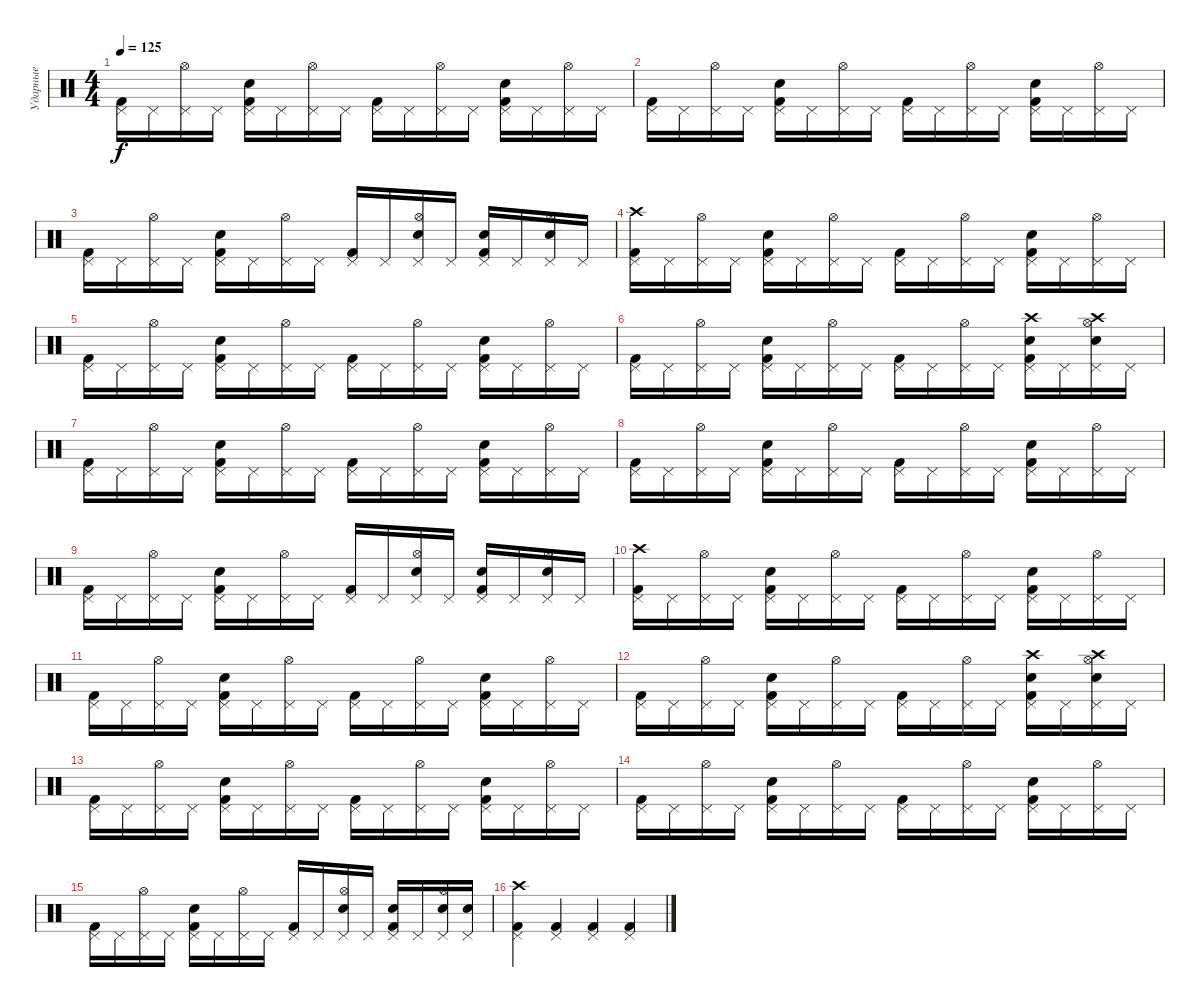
\track ("Ударные" "Ударные") {instrument percussion}
\staff {score}
\articulation defaults
\ts (4 4)
\tempo 125
\clef neutral
\ks c
("Kick (hit) 2" "Pedal Hi-Hat (hit)").16{dy f} "Pedal Hi-Hat (hit)".16 ("Pedal Hi-Hat (hit)" "Hi-Hat (open)").16 "Pedal Hi-Hat (hit)".16 ("Kick (hit) 2" "Pedal Hi-Hat (hit)" "Snare (hit) 2").16 "Pedal Hi-Hat (hit)".16 ("Pedal Hi-Hat (hit)" "Hi-Hat (open)").16 "Pedal Hi-Hat (hit)".16 ("Kick (hit) 2" "Pedal Hi-Hat (hit)").16 "Pedal Hi-Hat (hit)".16 ("Pedal Hi-Hat (hit)" "Hi-Hat (open)").16 "Pedal Hi-Hat (hit)".16 ("Kick (hit) 2" "Pedal Hi-Hat (hit)" "Snare (hit) 2").16 "Pedal Hi-Hat (hit)".16 ("Pedal Hi-Hat (hit)" "Hi-Hat (open)").16 "Pedal Hi-Hat (hit)".16 |
("Kick (hit) 2" "Pedal Hi-Hat (hit)").16 "Pedal Hi-Hat (hit)".16 ("Pedal Hi-Hat (hit)" "Hi-Hat (open)").16 "Pedal Hi-Hat (hit)".16 ("Kick (hit) 2" "Pedal Hi-Hat (hit)" "Snare (hit) 2").16 "Pedal Hi-Hat (hit)".16 ("Pedal Hi-Hat (hit)" "Hi-Hat (open)").16 "Pedal Hi-Hat (hit)".16 ("Kick (hit) 2" "Pedal Hi-Hat (hit)").16 "Pedal Hi-Hat (hit)".16 ("Pedal Hi-Hat (hit)" "Hi-Hat (open)").16 "Pedal Hi-Hat (hit)".16 ("Kick (hit) 2" "Pedal Hi-Hat (hit)" "Snare (hit) 2").16 "Pedal Hi-Hat (hit)".16 ("Pedal Hi-Hat (hit)" "Hi-Hat (open)").16 "Pedal Hi-Hat (hit)".16 |
("Kick (hit) 2" "Pedal Hi-Hat (hit)").16 "Pedal Hi-Hat (hit)".16 ("Pedal Hi-Hat (hit)" "Hi-Hat (open)").16 "Pedal Hi-Hat (hit)".16 ("Kick (hit) 2" "Pedal Hi-Hat (hit)" "Snare (hit) 2").16 "Pedal Hi-Hat (hit)".16 ("Pedal Hi-Hat (hit)" "Hi-Hat (open)").16 "Pedal Hi-Hat (hit)".16 ("Kick (hit) 2" "Pedal Hi-Hat (hit)").16 "Pedal Hi-Hat (hit)".16 ("Pedal Hi-Hat (hit)" "Snare (hit) 2" "Hi-Hat (open)").16 "Pedal Hi-Hat (hit)".16 ("Kick (hit) 2" "Pedal Hi-Hat (hit)" "Snare (hit) 2").16 "Pedal Hi-Hat (hit)".16 ("Pedal Hi-Hat (hit)" "Snare (hit) 2" "Hi-Hat (open)").16 "Pedal Hi-Hat (hit)".16 |
("Kick (hit) 2" "Pedal Hi-Hat (hit)" "Crash high (hit)").16 "Pedal Hi-Hat (hit)".16 ("Pedal Hi-Hat (hit)" "Hi-Hat (open)").16 "Pedal Hi-Hat (hit)".16 ("Kick (hit) 2" "Pedal Hi-Hat (hit)" "Snare (hit) 2").16 "Pedal Hi-Hat (hit)".16 ("Pedal Hi-Hat (hit)" "Hi-Hat (open)").16 "Pedal Hi-Hat (hit)".16 ("Kick (hit) 2" "Pedal Hi-Hat (hit)").16 "Pedal Hi-Hat (hit)".16 ("Pedal Hi-Hat (hit)" "Hi-Hat (open)").16 "Pedal Hi-Hat (hit)".16 ("Kick (hit) 2" "Pedal Hi-Hat (hit)" "Snare (hit) 2").16 "Pedal Hi-Hat (hit)".16 ("Pedal Hi-Hat (hit)" "Hi-Hat (open)").16 "Pedal Hi-Hat (hit)".16 |
("Kick (hit) 2" "Pedal Hi-Hat (hit)").16 "Pedal Hi-Hat (hit)".16 ("Pedal Hi-Hat (hit)" "Hi-Hat (open)").16 "Pedal Hi-Hat (hit)".16 ("Kick (hit) 2" "Pedal Hi-Hat (hit)" "Snare (hit) 2").16 "Pedal Hi-Hat (hit)".16 ("Pedal Hi-Hat (hit)" "Hi-Hat (open)").16 "Pedal Hi-Hat (hit)".16 ("Kick (hit) 2" "Pedal Hi-Hat (hit)").16 "Pedal Hi-Hat (hit)".16 ("Pedal Hi-Hat (hit)" "Hi-Hat (open)").16 "Pedal Hi-Hat (hit)".16 ("Kick (hit) 2" "Pedal Hi-Hat (hit)" "Snare (hit) 2").16 "Pedal Hi-Hat (hit)".16 ("Pedal Hi-Hat (hit)" "Hi-Hat (open)").16 "Pedal Hi-Hat (hit)".16 |
("Kick (hit) 2" "Pedal Hi-Hat (hit)").16 "Pedal Hi-Hat (hit)".16 ("Pedal Hi-Hat (hit)" "Hi-Hat (open)").16 "Pedal Hi-Hat (hit)".16 ("Kick (hit) 2" "Pedal Hi-Hat (hit)" "Snare (hit) 2").16 "Pedal Hi-Hat (hit)".16 ("Pedal Hi-Hat (hit)" "Hi-Hat (open)").16 "Pedal Hi-Hat (hit)".16 ("Kick (hit) 2" "Pedal Hi-Hat (hit)").16 "Pedal Hi-Hat (hit)".16 ("Pedal Hi-Hat (hit)" "Hi-Hat (open)").16 "Pedal Hi-Hat (hit)".16 ("Kick (hit) 2" "Pedal Hi-Hat (hit)" "Snare (hit) 2" "Crash high (hit)").16 "Pedal Hi-Hat (hit)".16 ("Pedal Hi-Hat (hit)" "Snare (hit) 2" "Hi-Hat (open)" "Crash high (hit)").16 "Pedal Hi-Hat (hit)".16 |
("Kick (hit) 2" "Pedal Hi-Hat (hit)").16 "Pedal Hi-Hat (hit)".16 ("Pedal Hi-Hat (hit)" "Hi-Hat (open)").16 "Pedal Hi-Hat (hit)".16 ("Kick (hit) 2" "Pedal Hi-Hat (hit)" "Snare (hit) 2").16 "Pedal Hi-Hat (hit)".16 ("Pedal Hi-Hat (hit)" "Hi-Hat (open)").16 "Pedal Hi-Hat (hit)".16 ("Kick (hit) 2" "Pedal Hi-Hat (hit)").16 "Pedal Hi-Hat (hit)".16 ("Pedal Hi-Hat (hit)" "Hi-Hat (open)").16 "Pedal Hi-Hat (hit)".16 ("Kick (hit) 2" "Pedal Hi-Hat (hit)" "Snare (hit) 2").16 "Pedal Hi-Hat (hit)".16 ("Pedal Hi-Hat (hit)" "Hi-Hat (open)").16 "Pedal Hi-Hat (hit)".16 |
("Kick (hit) 2" "Pedal Hi-Hat (hit)").16 "Pedal Hi-Hat (hit)".16 ("Pedal Hi-Hat (hit)" "Hi-Hat (open)").16 "Pedal Hi-Hat (hit)".16 ("Kick (hit) 2" "Pedal Hi-Hat (hit)" "Snare (hit) 2").16 "Pedal Hi-Hat (hit)".16 ("Pedal Hi-Hat (hit)" "Hi-Hat (open)").16 "Pedal Hi-Hat (hit)".16 ("Kick (hit) 2" "Pedal Hi-Hat (hit)").16 "Pedal Hi-Hat (hit)".16 ("Pedal Hi-Hat (hit)" "Hi-Hat (open)").16 "Pedal Hi-Hat (hit)".16 ("Kick (hit) 2" "Pedal Hi-Hat (hit)" "Snare (hit) 2").16 "Pedal Hi-Hat (hit)".16 ("Pedal Hi-Hat (hit)" "Hi-Hat (open)").16 "Pedal Hi-Hat (hit)".16 |
("Kick (hit) 2" "Pedal Hi-Hat (hit)").16 "Pedal Hi-Hat (hit)".16 ("Pedal Hi-Hat (hit)" "Hi-Hat (open)").16 "Pedal Hi-Hat (hit)".16 ("Kick (hit) 2" "Pedal Hi-Hat (hit)" "Snare (hit) 2").16 "Pedal Hi-Hat (hit)".16 ("Pedal Hi-Hat (hit)" "Hi-Hat (open)").16 "Pedal Hi-Hat (hit)".16 ("Kick (hit) 2" "Pedal Hi-Hat (hit)").16 "Pedal Hi-Hat (hit)".16 ("Pedal Hi-Hat (hit)" "Snare (hit) 2" "Hi-Hat (open)").16 "Pedal Hi-Hat (hit)".16 ("Kick (hit) 2" "Pedal Hi-Hat (hit)" "Snare (hit) 2").16 "Pedal Hi-Hat (hit)".16 ("Pedal Hi-Hat (hit)" "Snare (hit) 2" "Hi-Hat (open)").16 "Pedal Hi-Hat (hit)".16 |
("Kick (hit) 2" "Pedal Hi-Hat (hit)" "Crash high (hit)").16 "Pedal Hi-Hat (hit)".16 ("Pedal Hi-Hat (hit)" "Hi-Hat (open)").16 "Pedal Hi-Hat (hit)".16 ("Kick (hit) 2" "Pedal Hi-Hat (hit)" "Snare (hit) 2").16 "Pedal Hi-Hat (hit)".16 ("Pedal Hi-Hat (hit)" "Hi-Hat (open)").16 "Pedal Hi-Hat (hit)".16 ("Kick (hit) 2" "Pedal Hi-Hat (hit)").16 "Pedal Hi-Hat (hit)".16 ("Pedal Hi-Hat (hit)" "Hi-Hat (open)").16 "Pedal Hi-Hat (hit)".16 ("Kick (hit) 2" "Pedal Hi-Hat (hit)" "Snare (hit) 2").16 "Pedal Hi-Hat (hit)".16 ("Pedal Hi-Hat (hit)" "Hi-Hat (open)").16 "Pedal Hi-Hat (hit)".16 |
("Kick (hit) 2" "Pedal Hi-Hat (hit)").16 "Pedal Hi-Hat (hit)".16 ("Pedal Hi-Hat (hit)" "Hi-Hat (open)").16 "Pedal Hi-Hat (hit)".16 ("Kick (hit) 2" "Pedal Hi-Hat (hit)" "Snare (hit) 2").16 "Pedal Hi-Hat (hit)".16 ("Pedal Hi-Hat (hit)" "Hi-Hat (open)").16 "Pedal Hi-Hat (hit)".16 ("Kick (hit) 2" "Pedal Hi-Hat (hit)").16 "Pedal Hi-Hat (hit)".16 ("Pedal Hi-Hat (hit)" "Hi-Hat (open)").16 "Pedal Hi-Hat (hit)".16 ("Kick (hit) 2" "Pedal Hi-Hat (hit)" "Snare (hit) 2").16 "Pedal Hi-Hat (hit)".16 ("Pedal Hi-Hat (hit)" "Hi-Hat (open)").16 "Pedal Hi-Hat (hit)".16 |
("Kick (hit) 2" "Pedal Hi-Hat (hit)").16 "Pedal Hi-Hat (hit)".16 ("Pedal Hi-Hat (hit)" "Hi-Hat (open)").16 "Pedal Hi-Hat (hit)".16 ("Kick (hit) 2" "Pedal Hi-Hat (hit)" "Snare (hit) 2").16 "Pedal Hi-Hat (hit)".16 ("Pedal Hi-Hat (hit)" "Hi-Hat (open)").16 "Pedal Hi-Hat (hit)".16 ("Kick (hit) 2" "Pedal Hi-Hat (hit)").16 "Pedal Hi-Hat (hit)".16 ("Pedal Hi-Hat (hit)" "Hi-Hat (open)").16 "Pedal Hi-Hat (hit)".16 ("Kick (hit) 2" "Pedal Hi-Hat (hit)" "Snare (hit) 2" "Crash high (hit)").16 "Pedal Hi-Hat (hit)".16 ("Pedal Hi-Hat (hit)" "Snare (hit) 2" "Hi-Hat (open)" "Crash high (hit)").16 "Pedal Hi-Hat (hit)".16 |
("Kick (hit) 2" "Pedal Hi-Hat (hit)").16 "Pedal Hi-Hat (hit)".16 ("Pedal Hi-Hat (hit)" "Hi-Hat (open)").16 "Pedal Hi-Hat (hit)".16 ("Kick (hit) 2" "Pedal Hi-Hat (hit)" "Snare (hit) 2").16 "Pedal Hi-Hat (hit)".16 ("Pedal Hi-Hat (hit)" "Hi-Hat (open)").16 "Pedal Hi-Hat (hit)".16 ("Kick (hit) 2" "Pedal Hi-Hat (hit)").16 "Pedal Hi-Hat (hit)".16 ("Pedal Hi-Hat (hit)" "Hi-Hat (open)").16 "Pedal Hi-Hat (hit)".16 ("Kick (hit) 2" "Pedal Hi-Hat (hit)" "Snare (hit) 2").16 "Pedal Hi-Hat (hit)".16 ("Pedal Hi-Hat (hit)" "Hi-Hat (open)").16 "Pedal Hi-Hat (hit)".16 |
("Kick (hit) 2" "Pedal Hi-Hat (hit)").16 "Pedal Hi-Hat (hit)".16 ("Pedal Hi-Hat (hit)" "Hi-Hat (open)").16 "Pedal Hi-Hat (hit)".16 ("Kick (hit) 2" "Pedal Hi-Hat (hit)" "Snare (hit) 2").16 "Pedal Hi-Hat (hit)".16 ("Pedal Hi-Hat (hit)" "Hi-Hat (open)").16 "Pedal Hi-Hat (hit)".16 ("Kick (hit) 2" "Pedal Hi-Hat (hit)").16 "Pedal Hi-Hat (hit)".16 ("Pedal Hi-Hat (hit)" "Hi-Hat (open)").16 "Pedal Hi-Hat (hit)".16 ("Kick (hit) 2" "Pedal Hi-Hat (hit)" "Snare (hit) 2").16 "Pedal Hi-Hat (hit)".16 ("Pedal Hi-Hat (hit)" "Hi-Hat (open)").16 "Pedal Hi-Hat (hit)".16 |
("Kick (hit) 2" "Pedal Hi-Hat (hit)").16 "Pedal Hi-Hat (hit)".16 ("Pedal Hi-Hat (hit)" "Hi-Hat (open)").16 "Pedal Hi-Hat (hit)".16 ("Kick (hit) 2" "Pedal Hi-Hat (hit)" "Snare (hit) 2").16 "Pedal Hi-Hat (hit)".16 ("Pedal Hi-Hat (hit)" "Hi-Hat (open)").16 "Pedal Hi-Hat (hit)".16 ("Kick (hit) 2" "Pedal Hi-Hat (hit)").16 "Pedal Hi-Hat (hit)".16 ("Pedal Hi-Hat (hit)" "Snare (hit) 2" "Hi-Hat (open)").16 "Pedal Hi-Hat (hit)".16 ("Kick (hit) 2" "Pedal Hi-Hat (hit)" "Snare (hit) 2").16 "Pedal Hi-Hat (hit)".16 ("Pedal Hi-Hat (hit)" "Snare (hit) 2" "Hi-Hat (open)").16 ("Pedal Hi-Hat (hit)" "Snare (hit) 2").16 |
("Kick (hit) 2" "Pedal Hi-Hat (hit)" "Crash high (hit)").4 ("Kick (hit) 2" "Pedal Hi-Hat (hit)").4 ("Kick (hit) 2" "Pedal Hi-Hat (hit)").4 ("Kick (hit) 2" "Pedal Hi-Hat (hit)").4
